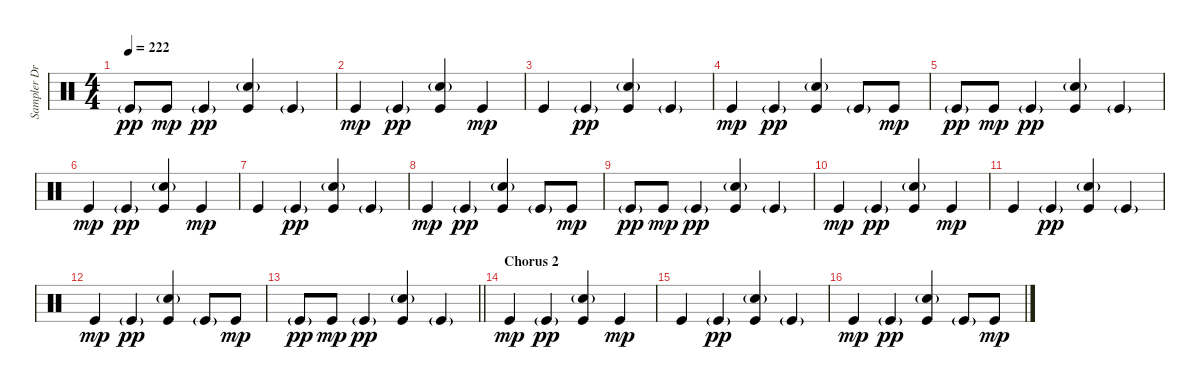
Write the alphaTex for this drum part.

\track ("Sampler Drums 1" "Sampler Dr") {instrument percussion}
\staff {score}
\articulation defaults
\ts (4 4)
\tempo 222
\clef neutral
\ks c "Kick (hit)"{g}.8{dy pp} "Kick (hit)".8{dy mp} "Kick (hit)"{g}.4{dy pp}
("Kick (hit)" "Snare (hit) 2"{g}).4 "Kick (hit)"{g}.4 |
"Kick (hit)".4{dy mp} "Kick (hit)"{g}.4{dy pp} ("Kick (hit)" "Snare (hit) 2"{g}).4 "Kick (hit)".4{dy mp} |
"Kick (hit)".4 "Kick (hit)"{g}.4{dy pp} ("Kick (hit)" "Snare (hit) 2"{g}).4 "Kick (hit)"{g}.4 |
"Kick (hit)".4{dy mp} "Kick (hit)"{g}.4{dy pp} ("Kick (hit)" "Snare (hit) 2"{g}).4 "Kick (hit)"{g}.8 "Kick (hit)".8{dy mp} |
"Kick (hit)"{g}.8{dy pp} "Kick (hit)".8{dy mp} "Kick (hit)"{g}.4{dy pp} ("Kick (hit)" "Snare (hit) 2"{g}).4 "Kick (hit)"{g}.4 |
"Kick (hit)".4{dy mp} "Kick (hit)"{g}.4{dy pp} ("Kick (hit)" "Snare (hit) 2"{g}).4 "Kick (hit)".4{dy mp} |
"Kick (hit)".4 "Kick (hit)"{g}.4{dy pp} ("Kick (hit)" "Snare (hit) 2"{g}).4 "Kick (hit)"{g}.4 |
"Kick (hit)".4{dy mp} "Kick (hit)"{g}.4{dy pp} ("Kick (hit)" "Snare (hit) 2"{g}).4 "Kick (hit)"{g}.8 "Kick (hit)".8{dy mp} |
"Kick (hit)"{g}.8{dy pp} "Kick (hit)".8{dy mp} "Kick (hit)"{g}.4{dy pp} ("Kick (hit)" "Snare (hit) 2"{g}).4 "Kick (hit)"{g}.4 |
"Kick (hit)".4{dy mp} "Kick (hit)"{g}.4{dy pp} ("Kick (hit)" "Snare (hit) 2"{g}).4 "Kick (hit)".4{dy mp} |
"Kick (hit)".4 "Kick (hit)"{g}.4{dy pp} ("Kick (hit)" "Snare (hit) 2"{g}).4 "Kick (hit)"{g}.4 |
"Kick (hit)".4{dy mp} "Kick (hit)"{g}.4{dy pp} ("Kick (hit)" "Snare (hit) 2"{g}).4 "Kick (hit)"{g}.8 "Kick (hit)".8{dy mp} |
\barLineRight lightlight "Kick (hit)"{g}.8{dy pp} "Kick (hit)".8{dy mp} "Kick (hit)"{g}.4{dy pp}
("Kick (hit)" "Snare (hit) 2"{g}).4 "Kick (hit)"{g}.4 |
\section ("" "Chorus 2")
"Kick (hit)".4{dy mp volume 16} "Kick (hit)"{g}.4{dy pp} ("Kick (hit)" "Snare (hit) 2"{g}).4 "Kick (hit)".4{dy mp} |
"Kick (hit)".4 "Kick (hit)"{g}.4{dy pp} ("Kick (hit)" "Snare (hit) 2"{g}).4 "Kick (hit)"{g}.4 |
"Kick (hit)".4{dy mp} "Kick (hit)"{g}.4{dy pp} ("Kick (hit)" "Snare (hit) 2"{g}).4 "Kick (hit)"{g}.8 "Kick (hit)".8{dy mp}
